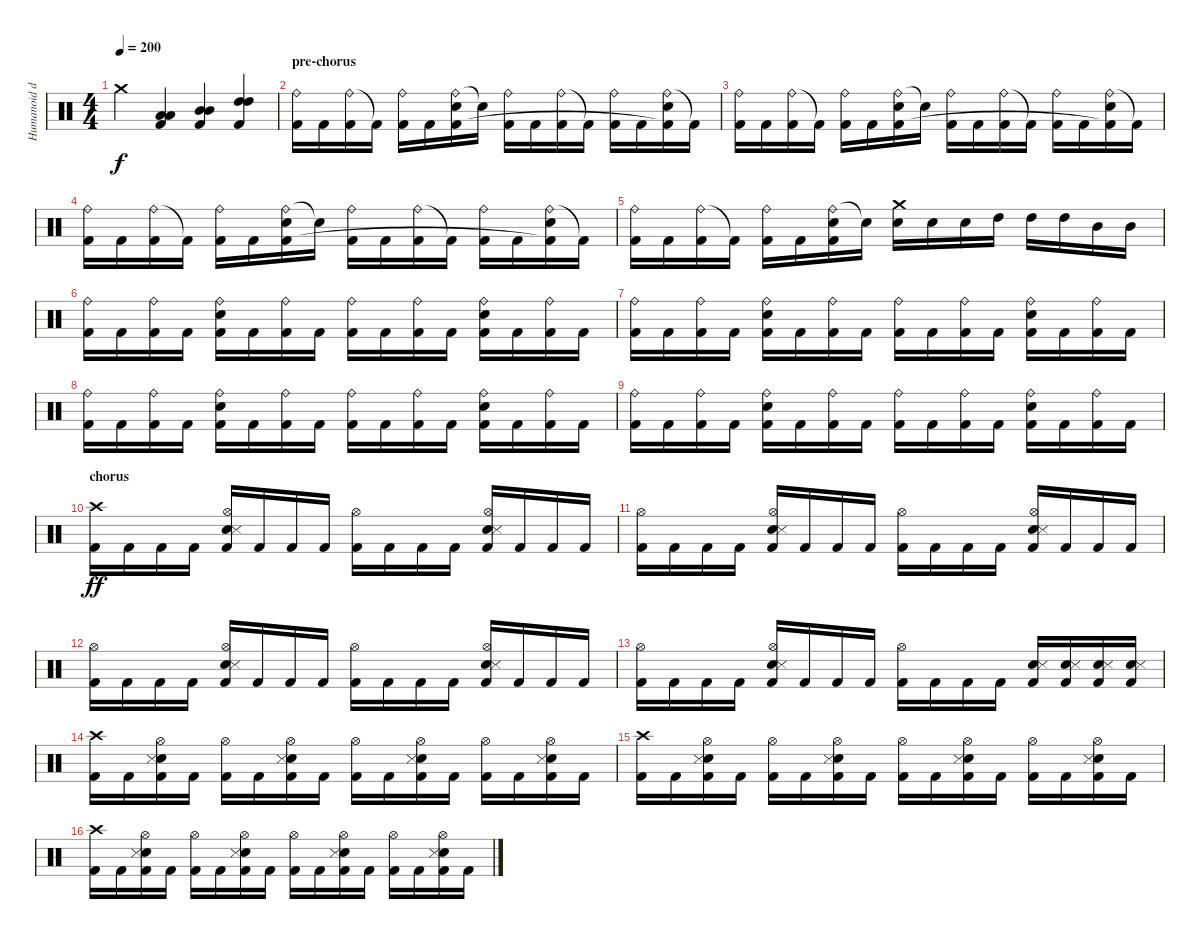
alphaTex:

\track ("Humanoid drum machine" "Humanoid d") {instrument percussion}
\staff {score}
\articulation defaults
\ts (4 4)
\tempo 200
\clef neutral
\ks c "Crash medium (hit)".4{dy f}
("Low Tom (hit)" "Low Tom (hit)" "Kick (hit) 2").4 ("Mid Tom (hit)" "Mid Tom (hit)" "Kick (hit) 2").4 ("High Tom (hit)" "High Tom (hit)" "Kick (hit) 2").4 |
\section ("" "pre-chorus")
("Ride (bell)" "Kick (hit) 2").16 "Kick (hit) 2".16 ("Ride (bell)" "Kick (hit) 2").16 "Kick (hit) 2"{t}.16 ("Ride (bell)" "Kick (hit) 2").16 "Kick (hit) 2".16 ("Ride (bell)" "Electric Snare (hit)" "Kick (hit) 2").16 "Electric Snare (hit)"{t}.16 ("Ride (bell)" "Kick (hit) 2").16 "Kick (hit) 2".16 ("Ride (bell)" "Kick (hit) 2").16 "Kick (hit) 2"{t}.16 ("Ride (bell)" "Kick (hit) 2").16 "Kick (hit) 2".16 ("Ride (bell)" "Electric Snare (hit)" "Kick (hit) 2"{t}).16 "Kick (hit) 2"{t}.16 |
("Ride (bell)" "Kick (hit) 2").16 "Kick (hit) 2".16 ("Ride (bell)" "Kick (hit) 2").16 "Kick (hit) 2"{t}.16 ("Ride (bell)" "Kick (hit) 2").16 "Kick (hit) 2".16 ("Ride (bell)" "Electric Snare (hit)" "Kick (hit) 2").16 "Electric Snare (hit)"{t}.16 ("Ride (bell)" "Kick (hit) 2").16 "Kick (hit) 2".16 ("Ride (bell)" "Kick (hit) 2").16 "Kick (hit) 2"{t}.16 ("Ride (bell)" "Kick (hit) 2").16 "Kick (hit) 2".16 ("Ride (bell)" "Electric Snare (hit)" "Kick (hit) 2"{t}).16 "Kick (hit) 2"{t}.16 |
("Ride (bell)" "Kick (hit) 2").16 "Kick (hit) 2".16 ("Ride (bell)" "Kick (hit) 2").16 "Kick (hit) 2"{t}.16 ("Ride (bell)" "Kick (hit) 2").16 "Kick (hit) 2".16 ("Ride (bell)" "Electric Snare (hit)" "Kick (hit) 2").16 "Electric Snare (hit)"{t}.16 ("Ride (bell)" "Kick (hit) 2").16 "Kick (hit) 2".16 ("Ride (bell)" "Kick (hit) 2").16 "Kick (hit) 2"{t}.16 ("Ride (bell)" "Kick (hit) 2").16 "Kick (hit) 2".16 ("Ride (bell)" "Electric Snare (hit)" "Kick (hit) 2"{t}).16 "Kick (hit) 2"{t}.16 |
("Ride (bell)" "Kick (hit) 2").16 "Kick (hit) 2".16 ("Ride (bell)" "Kick (hit) 2").16 "Kick (hit) 2"{t}.16 ("Ride (bell)" "Kick (hit) 2").16 "Kick (hit) 2".16 ("Ride (bell)" "Electric Snare (hit)" "Kick (hit) 2").16 "Electric Snare (hit)"{t}.16 ("Crash medium (hit)" "Electric Snare (hit)").16 "Electric Snare (hit)".16 "Electric Snare (hit)".16 "High Tom (hit)".16 "High Tom (hit)".16 "High Tom (hit)".16 "Mid Tom (hit)".16 "Mid Tom (hit)".16 |
("Ride (bell)" "Kick (hit) 2").16 "Kick (hit) 2".16 ("Ride (bell)" "Kick (hit) 2").16 "Kick (hit) 2".16 ("Ride (bell)" "Electric Snare (hit)" "Kick (hit) 2").16 "Kick (hit) 2".16 ("Ride (bell)" "Kick (hit) 2").16 "Kick (hit) 2".16 ("Ride (bell)" "Kick (hit) 2").16 "Kick (hit) 2".16 ("Ride (bell)" "Kick (hit) 2").16 "Kick (hit) 2".16 ("Ride (bell)" "Electric Snare (hit)" "Kick (hit) 2").16 "Kick (hit) 2".16 ("Ride (bell)" "Kick (hit) 2").16 "Kick (hit) 2".16 |
("Ride (bell)" "Kick (hit) 2").16 "Kick (hit) 2".16 ("Ride (bell)" "Kick (hit) 2").16 "Kick (hit) 2".16 ("Ride (bell)" "Electric Snare (hit)" "Kick (hit) 2").16 "Kick (hit) 2".16 ("Ride (bell)" "Kick (hit) 2").16 "Kick (hit) 2".16 ("Ride (bell)" "Kick (hit) 2").16 "Kick (hit) 2".16 ("Ride (bell)" "Kick (hit) 2").16 "Kick (hit) 2".16 ("Ride (bell)" "Electric Snare (hit)" "Kick (hit) 2").16 "Kick (hit) 2".16 ("Ride (bell)" "Kick (hit) 2").16 "Kick (hit) 2".16 |
("Ride (bell)" "Kick (hit) 2").16 "Kick (hit) 2".16 ("Ride (bell)" "Kick (hit) 2").16 "Kick (hit) 2".16 ("Ride (bell)" "Electric Snare (hit)" "Kick (hit) 2").16 "Kick (hit) 2".16 ("Ride (bell)" "Kick (hit) 2").16 "Kick (hit) 2".16 ("Ride (bell)" "Kick (hit) 2").16 "Kick (hit) 2".16 ("Ride (bell)" "Kick (hit) 2").16 "Kick (hit) 2".16 ("Ride (bell)" "Electric Snare (hit)" "Kick (hit) 2").16 "Kick (hit) 2".16 ("Ride (bell)" "Kick (hit) 2").16 "Kick (hit) 2".16 |
("Ride (bell)" "Kick (hit) 2").16 "Kick (hit) 2".16 ("Ride (bell)" "Kick (hit) 2").16 "Kick (hit) 2".16 ("Ride (bell)" "Electric Snare (hit)" "Kick (hit) 2").16 "Kick (hit) 2".16 ("Ride (bell)" "Kick (hit) 2").16 "Kick (hit) 2".16 ("Ride (bell)" "Kick (hit) 2").16 "Kick (hit) 2".16 ("Ride (bell)" "Kick (hit) 2").16 "Kick (hit) 2".16 ("Ride (bell)" "Electric Snare (hit)" "Kick (hit) 2").16 "Kick (hit) 2".16 ("Ride (bell)" "Kick (hit) 2").16 "Kick (hit) 2".16 |
\section ("" "chorus")
("Crash high (hit)" "Kick (hit) 2").16{dy ff} "Kick (hit) 2".16 "Kick (hit) 2".16 "Kick (hit) 2".16 ("Hi-Hat (open)" "Electric Snare (hit)" "Snare (side stick) 3" "Kick (hit) 2").16 "Kick (hit) 2".16 "Kick (hit) 2".16 "Kick (hit) 2".16 ("Hi-Hat (open)" "Kick (hit) 2").16 "Kick (hit) 2".16 "Kick (hit) 2".16 "Kick (hit) 2".16 ("Hi-Hat (open)" "Electric Snare (hit)" "Snare (side stick) 3" "Kick (hit) 2").16 "Kick (hit) 2".16 "Kick (hit) 2".16 "Kick (hit) 2".16 |
("Hi-Hat (open)" "Kick (hit) 2").16 "Kick (hit) 2".16 "Kick (hit) 2".16 "Kick (hit) 2".16 ("Hi-Hat (open)" "Electric Snare (hit)" "Snare (side stick) 3" "Kick (hit) 2").16 "Kick (hit) 2".16 "Kick (hit) 2".16 "Kick (hit) 2".16 ("Hi-Hat (open)" "Kick (hit) 2").16 "Kick (hit) 2".16 "Kick (hit) 2".16 "Kick (hit) 2".16 ("Hi-Hat (open)" "Electric Snare (hit)" "Snare (side stick) 3" "Kick (hit) 2").16 "Kick (hit) 2".16 "Kick (hit) 2".16 "Kick (hit) 2".16 |
("Hi-Hat (open)" "Kick (hit) 2").16 "Kick (hit) 2".16 "Kick (hit) 2".16 "Kick (hit) 2".16 ("Hi-Hat (open)" "Electric Snare (hit)" "Snare (side stick) 3" "Kick (hit) 2").16 "Kick (hit) 2".16 "Kick (hit) 2".16 "Kick (hit) 2".16 ("Hi-Hat (open)" "Kick (hit) 2").16 "Kick (hit) 2".16 "Kick (hit) 2".16 "Kick (hit) 2".16 ("Hi-Hat (open)" "Electric Snare (hit)" "Snare (side stick) 3" "Kick (hit) 2").16 "Kick (hit) 2".16 "Kick (hit) 2".16 "Kick (hit) 2".16 |
("Hi-Hat (open)" "Kick (hit) 2").16 "Kick (hit) 2".16 "Kick (hit) 2".16 "Kick (hit) 2".16 ("Hi-Hat (open)" "Electric Snare (hit)" "Snare (side stick) 3" "Kick (hit) 2").16 "Kick (hit) 2".16 "Kick (hit) 2".16 "Kick (hit) 2".16 ("Hi-Hat (open)" "Kick (hit) 2").16 "Kick (hit) 2".16 "Kick (hit) 2".16 "Kick (hit) 2".16 ("Electric Snare (hit)" "Snare (side stick) 3" "Kick (hit) 2").16 ("Electric Snare (hit)" "Snare (side stick) 3" "Kick (hit) 2").16 ("Electric Snare (hit)" "Snare (side stick) 3" "Kick (hit) 2").16 ("Electric Snare (hit)" "Snare (side stick) 3" "Kick (hit) 2").16 |
("Crash high (hit)" "Kick (hit) 2").16 "Kick (hit) 2".16 ("Hi-Hat (open)" "Electric Snare (hit)" "Snare (side stick) 3" "Kick (hit) 2").16 "Kick (hit) 2".16 ("Hi-Hat (open)" "Kick (hit) 2").16 "Kick (hit) 2".16 ("Hi-Hat (open)" "Electric Snare (hit)" "Snare (side stick) 3" "Kick (hit) 2").16 "Kick (hit) 2".16 ("Hi-Hat (open)" "Kick (hit) 2").16 "Kick (hit) 2".16 ("Hi-Hat (open)" "Electric Snare (hit)" "Snare (side stick) 3" "Kick (hit) 2").16 "Kick (hit) 2".16 ("Hi-Hat (open)" "Kick (hit) 2").16 "Kick (hit) 2".16 ("Hi-Hat (open)" "Electric Snare (hit)" "Snare (side stick) 3" "Kick (hit) 2").16 "Kick (hit) 2".16 |
("Crash high (hit)" "Kick (hit) 2").16 "Kick (hit) 2".16 ("Hi-Hat (open)" "Electric Snare (hit)" "Snare (side stick) 3" "Kick (hit) 2").16 "Kick (hit) 2".16 ("Hi-Hat (open)" "Kick (hit) 2").16 "Kick (hit) 2".16 ("Hi-Hat (open)" "Electric Snare (hit)" "Snare (side stick) 3" "Kick (hit) 2").16 "Kick (hit) 2".16 ("Hi-Hat (open)" "Kick (hit) 2").16 "Kick (hit) 2".16 ("Hi-Hat (open)" "Electric Snare (hit)" "Snare (side stick) 3" "Kick (hit) 2").16 "Kick (hit) 2".16 ("Hi-Hat (open)" "Kick (hit) 2").16 "Kick (hit) 2".16 ("Hi-Hat (open)" "Electric Snare (hit)" "Snare (side stick) 3" "Kick (hit) 2").16 "Kick (hit) 2".16 |
("Crash high (hit)" "Kick (hit) 2").16 "Kick (hit) 2".16 ("Hi-Hat (open)" "Electric Snare (hit)" "Snare (side stick) 3" "Kick (hit) 2").16 "Kick (hit) 2".16 ("Hi-Hat (open)" "Kick (hit) 2").16 "Kick (hit) 2".16 ("Hi-Hat (open)" "Electric Snare (hit)" "Snare (side stick) 3" "Kick (hit) 2").16 "Kick (hit) 2".16 ("Hi-Hat (open)" "Kick (hit) 2").16 "Kick (hit) 2".16 ("Hi-Hat (open)" "Electric Snare (hit)" "Snare (side stick) 3" "Kick (hit) 2").16 "Kick (hit) 2".16 ("Hi-Hat (open)" "Kick (hit) 2").16 "Kick (hit) 2".16 ("Hi-Hat (open)" "Electric Snare (hit)" "Snare (side stick) 3" "Kick (hit) 2").16 "Kick (hit) 2".16
